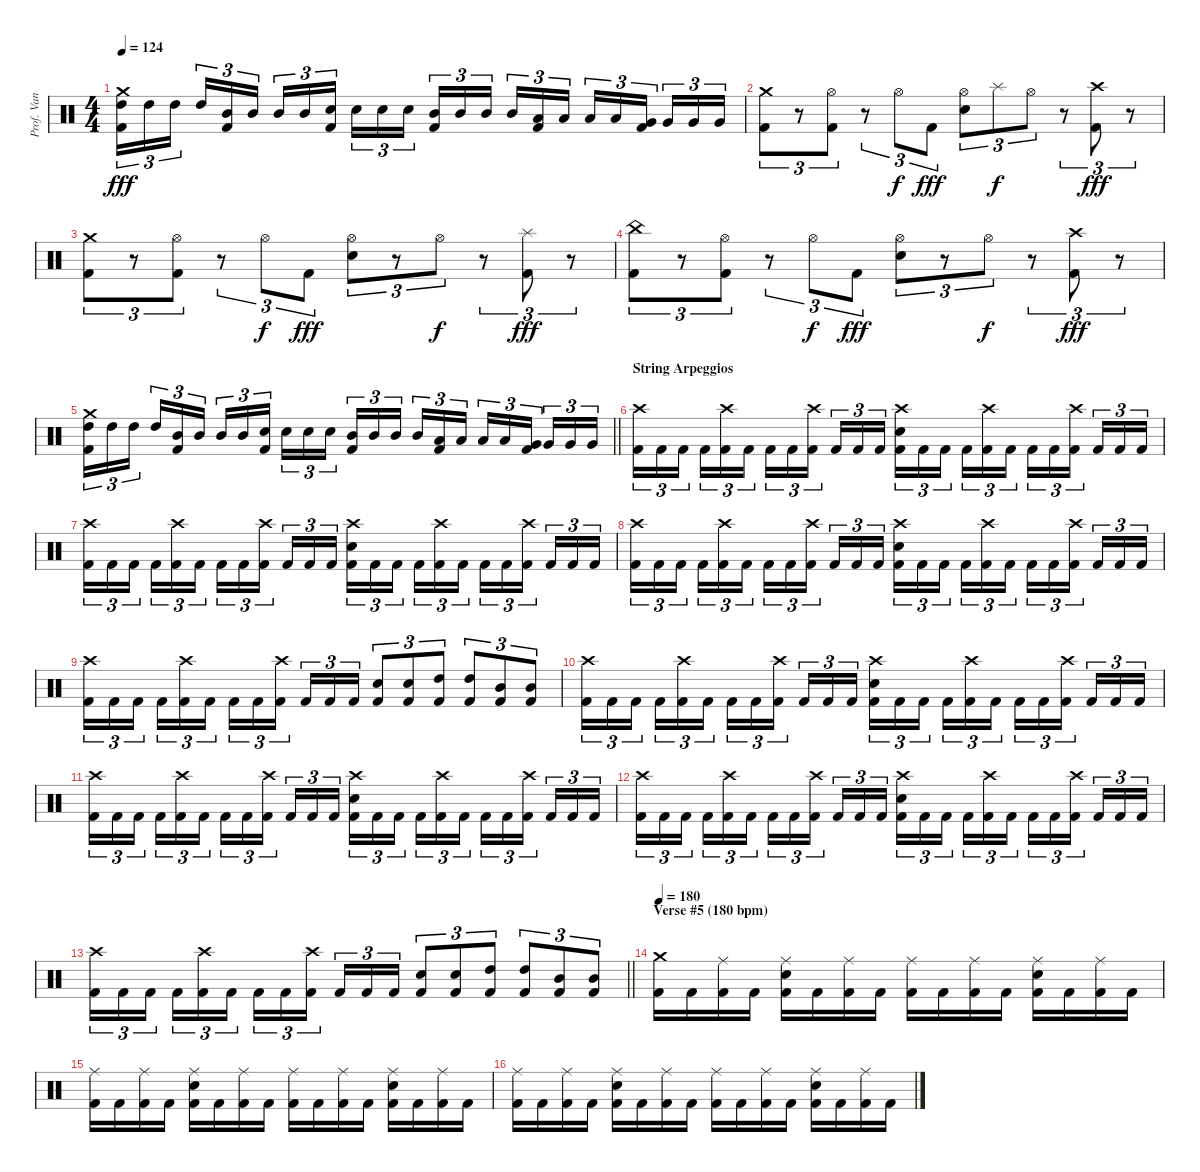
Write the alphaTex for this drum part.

\track ("Prof. Van Helsing (Drums)" "Prof. Van ") {instrument percussion}
\staff {score}
\articulation defaults
\ts (4 4)
\tempo 124
\clef neutral
\ks c
("Crash medium (hit)" "High Tom (hit)" "Kick (hit) 2").16{tu (3 2) dy fff} "High Tom (hit)".16{tu (3 2)} "High Tom (hit)".16{tu (3 2) beam splitsecondary} "High Tom (hit)".16{tu (3 2)} ("Mid Tom (hit)" "Kick (hit) 2").16{tu (3 2)} "Mid Tom (hit)".16{tu (3 2)} "Mid Tom (hit)".16{tu (3 2)} "Mid Tom (hit)".16{tu (3 2)} ("Snare (hit) 2" "Kick (hit) 2").16{tu (3 2) beam splitsecondary} "Snare (hit) 2".16{tu (3 2)} "Snare (hit) 2".16{tu (3 2)} "Snare (hit) 2".16{tu (3 2)} ("Mid Tom (hit)" "Kick (hit) 2").16{tu (3 2)} "Mid Tom (hit)".16{tu (3 2)} "Mid Tom (hit)".16{tu (3 2) beam splitsecondary} "Mid Tom (hit)".16{tu (3 2)} ("Low Tom (hit)" "Kick (hit) 2").16{tu (3 2)} "Low Tom (hit)".16{tu (3 2)} "Low Tom (hit)".16{tu (3 2)} "Low Tom (hit)".16{tu (3 2)} ("Very Low Tom (hit)" "Kick (hit) 2").16{tu (3 2) beam splitsecondary} "Very Low Tom (hit)".16{tu (3 2)} "Very Low Tom (hit)".16{tu (3 2)} "Very Low Tom (hit)".16{tu (3 2)} |
("Crash medium (hit)" "Kick (hit) 2").8{tu (3 2)} r.8{tu (3 2)} ("Hi-Hat (open)" "Kick (hit) 2").8{tu (3 2)} r.8{tu (3 2)} "Hi-Hat (open)".8{tu (3 2) dy f} "Kick (hit) 2".8{tu (3 2) dy fff} ("Hi-Hat (open)" "Snare (hit) 2").8{tu (3 2)} "Splash (hit)".8{tu (3 2) dy f} "Hi-Hat (open)".8{tu (3 2)} r.8{tu (3 2)} ("Crash high (hit)" "Kick (hit) 2").8{tu (3 2) dy fff} r.8{tu (3 2)} |
("Crash medium (hit)" "Kick (hit) 2").8{tu (3 2)} r.8{tu (3 2)} ("Hi-Hat (open)" "Kick (hit) 2").8{tu (3 2)} r.8{tu (3 2)} "Hi-Hat (open)".8{tu (3 2) dy f} "Kick (hit) 2".8{tu (3 2) dy fff} ("Hi-Hat (open)" "Snare (hit) 2").8{tu (3 2)} r.8{tu (3 2)} "Hi-Hat (open)".8{tu (3 2) dy f} r.8{tu (3 2)} ("Splash (hit)" "Kick (hit) 2").8{tu (3 2) dy fff} r.8{tu (3 2)} |
("China (hit)" "Kick (hit) 2").8{tu (3 2)} r.8{tu (3 2)} ("Hi-Hat (open)" "Kick (hit) 2").8{tu (3 2)} r.8{tu (3 2)} "Hi-Hat (open)".8{tu (3 2) dy f} "Kick (hit) 2".8{tu (3 2) dy fff} ("Hi-Hat (open)" "Snare (hit) 2").8{tu (3 2)} r.8{tu (3 2)} "Hi-Hat (open)".8{tu (3 2) dy f} r.8{tu (3 2)} ("Crash high (hit)" "Kick (hit) 2").8{tu (3 2) dy fff} r.8{tu (3 2)} |
\barLineRight lightlight
("Crash medium (hit)" "High Tom (hit)" "Kick (hit) 2").16{tu (3 2)} "High Tom (hit)".16{tu (3 2)} "High Tom (hit)".16{tu (3 2) beam splitsecondary} "High Tom (hit)".16{tu (3 2)} ("Mid Tom (hit)" "Kick (hit) 2").16{tu (3 2)} "Mid Tom (hit)".16{tu (3 2)} "Mid Tom (hit)".16{tu (3 2)} "Mid Tom (hit)".16{tu (3 2)} ("Snare (hit) 2" "Kick (hit) 2").16{tu (3 2) beam splitsecondary} "Snare (hit) 2".16{tu (3 2)} "Snare (hit) 2".16{tu (3 2)} "Snare (hit) 2".16{tu (3 2)} ("Mid Tom (hit)" "Kick (hit) 2").16{tu (3 2)} "Mid Tom (hit)".16{tu (3 2)} "Mid Tom (hit)".16{tu (3 2) beam splitsecondary} "Mid Tom (hit)".16{tu (3 2)} ("Low Tom (hit)" "Kick (hit) 2").16{tu (3 2)} "Low Tom (hit)".16{tu (3 2)} "Low Tom (hit)".16{tu (3 2)} "Low Tom (hit)".16{tu (3 2)} ("Very Low Tom (hit)" "Kick (hit) 2").16{tu (3 2) beam splitsecondary} "Very Low Tom (hit)".16{tu (3 2)} "Very Low Tom (hit)".16{tu (3 2)} "Very Low Tom (hit)".16{tu (3 2)} |
\section ("" "String Arpeggios")
("Crash high (hit)" "Kick (hit) 2").16{tu (3 2)} "Kick (hit) 2".16{tu (3 2)} "Kick (hit) 2".16{tu (3 2) beam splitsecondary} "Kick (hit) 2".16{tu (3 2)} ("Crash high (hit)" "Kick (hit) 2").16{tu (3 2)} "Kick (hit) 2".16{tu (3 2)} "Kick (hit) 2".16{tu (3 2)} "Kick (hit) 2".16{tu (3 2)} ("Crash high (hit)" "Kick (hit) 2").16{tu (3 2) beam splitsecondary} "Kick (hit) 2".16{tu (3 2)} "Kick (hit) 2".16{tu (3 2)} "Kick (hit) 2".16{tu (3 2)} ("Crash high (hit)" "Snare (hit) 2" "Kick (hit) 2").16{tu (3 2)} "Kick (hit) 2".16{tu (3 2)} "Kick (hit) 2".16{tu (3 2) beam splitsecondary} "Kick (hit) 2".16{tu (3 2)} ("Crash high (hit)" "Kick (hit) 2").16{tu (3 2)} "Kick (hit) 2".16{tu (3 2)} "Kick (hit) 2".16{tu (3 2)} "Kick (hit) 2".16{tu (3 2)} ("Crash high (hit)" "Kick (hit) 2").16{tu (3 2) beam splitsecondary} "Kick (hit) 2".16{tu (3 2)} "Kick (hit) 2".16{tu (3 2)} "Kick (hit) 2".16{tu (3 2)} |
("Crash high (hit)" "Kick (hit) 2").16{tu (3 2)} "Kick (hit) 2".16{tu (3 2)} "Kick (hit) 2".16{tu (3 2) beam splitsecondary} "Kick (hit) 2".16{tu (3 2)} ("Crash high (hit)" "Kick (hit) 2").16{tu (3 2)} "Kick (hit) 2".16{tu (3 2)} "Kick (hit) 2".16{tu (3 2)} "Kick (hit) 2".16{tu (3 2)} ("Crash high (hit)" "Kick (hit) 2").16{tu (3 2) beam splitsecondary} "Kick (hit) 2".16{tu (3 2)} "Kick (hit) 2".16{tu (3 2)} "Kick (hit) 2".16{tu (3 2)} ("Crash high (hit)" "Snare (hit) 2" "Kick (hit) 2").16{tu (3 2)} "Kick (hit) 2".16{tu (3 2)} "Kick (hit) 2".16{tu (3 2) beam splitsecondary} "Kick (hit) 2".16{tu (3 2)} ("Crash high (hit)" "Kick (hit) 2").16{tu (3 2)} "Kick (hit) 2".16{tu (3 2)} "Kick (hit) 2".16{tu (3 2)} "Kick (hit) 2".16{tu (3 2)} ("Crash high (hit)" "Kick (hit) 2").16{tu (3 2) beam splitsecondary} "Kick (hit) 2".16{tu (3 2)} "Kick (hit) 2".16{tu (3 2)} "Kick (hit) 2".16{tu (3 2)} |
("Crash high (hit)" "Kick (hit) 2").16{tu (3 2)} "Kick (hit) 2".16{tu (3 2)} "Kick (hit) 2".16{tu (3 2) beam splitsecondary} "Kick (hit) 2".16{tu (3 2)} ("Crash high (hit)" "Kick (hit) 2").16{tu (3 2)} "Kick (hit) 2".16{tu (3 2)} "Kick (hit) 2".16{tu (3 2)} "Kick (hit) 2".16{tu (3 2)} ("Crash high (hit)" "Kick (hit) 2").16{tu (3 2) beam splitsecondary} "Kick (hit) 2".16{tu (3 2)} "Kick (hit) 2".16{tu (3 2)} "Kick (hit) 2".16{tu (3 2)} ("Crash high (hit)" "Snare (hit) 2" "Kick (hit) 2").16{tu (3 2)} "Kick (hit) 2".16{tu (3 2)} "Kick (hit) 2".16{tu (3 2) beam splitsecondary} "Kick (hit) 2".16{tu (3 2)} ("Crash high (hit)" "Kick (hit) 2").16{tu (3 2)} "Kick (hit) 2".16{tu (3 2)} "Kick (hit) 2".16{tu (3 2)} "Kick (hit) 2".16{tu (3 2)} ("Crash high (hit)" "Kick (hit) 2").16{tu (3 2) beam splitsecondary} "Kick (hit) 2".16{tu (3 2)} "Kick (hit) 2".16{tu (3 2)} "Kick (hit) 2".16{tu (3 2)} |
("Crash high (hit)" "Kick (hit) 2").16{tu (3 2)} "Kick (hit) 2".16{tu (3 2)} "Kick (hit) 2".16{tu (3 2) beam splitsecondary} "Kick (hit) 2".16{tu (3 2)} ("Crash high (hit)" "Kick (hit) 2").16{tu (3 2)} "Kick (hit) 2".16{tu (3 2)} "Kick (hit) 2".16{tu (3 2)} "Kick (hit) 2".16{tu (3 2)} ("Crash high (hit)" "Kick (hit) 2").16{tu (3 2) beam splitsecondary} "Kick (hit) 2".16{tu (3 2)} "Kick (hit) 2".16{tu (3 2)} "Kick (hit) 2".16{tu (3 2)} ("Snare (hit) 2" "Kick (hit) 2").8{tu (3 2)} ("Snare (hit) 2" "Kick (hit) 2").8{tu (3 2)} ("High Tom (hit)" "Kick (hit) 2").8{tu (3 2)} ("High Tom (hit)" "Kick (hit) 2").8{tu (3 2)} ("Mid Tom (hit)" "Kick (hit) 2").8{tu (3 2)} ("Mid Tom (hit)" "Kick (hit) 2").8{tu (3 2)} |
("Crash high (hit)" "Kick (hit) 2").16{tu (3 2)} "Kick (hit) 2".16{tu (3 2)} "Kick (hit) 2".16{tu (3 2) beam splitsecondary} "Kick (hit) 2".16{tu (3 2)} ("Crash high (hit)" "Kick (hit) 2").16{tu (3 2)} "Kick (hit) 2".16{tu (3 2)} "Kick (hit) 2".16{tu (3 2)} "Kick (hit) 2".16{tu (3 2)} ("Crash high (hit)" "Kick (hit) 2").16{tu (3 2) beam splitsecondary} "Kick (hit) 2".16{tu (3 2)} "Kick (hit) 2".16{tu (3 2)} "Kick (hit) 2".16{tu (3 2)} ("Crash high (hit)" "Snare (hit) 2" "Kick (hit) 2").16{tu (3 2)} "Kick (hit) 2".16{tu (3 2)} "Kick (hit) 2".16{tu (3 2) beam splitsecondary} "Kick (hit) 2".16{tu (3 2)} ("Crash high (hit)" "Kick (hit) 2").16{tu (3 2)} "Kick (hit) 2".16{tu (3 2)} "Kick (hit) 2".16{tu (3 2)} "Kick (hit) 2".16{tu (3 2)} ("Crash high (hit)" "Kick (hit) 2").16{tu (3 2) beam splitsecondary} "Kick (hit) 2".16{tu (3 2)} "Kick (hit) 2".16{tu (3 2)} "Kick (hit) 2".16{tu (3 2)} |
("Crash high (hit)" "Kick (hit) 2").16{tu (3 2)} "Kick (hit) 2".16{tu (3 2)} "Kick (hit) 2".16{tu (3 2) beam splitsecondary} "Kick (hit) 2".16{tu (3 2)} ("Crash high (hit)" "Kick (hit) 2").16{tu (3 2)} "Kick (hit) 2".16{tu (3 2)} "Kick (hit) 2".16{tu (3 2)} "Kick (hit) 2".16{tu (3 2)} ("Crash high (hit)" "Kick (hit) 2").16{tu (3 2) beam splitsecondary} "Kick (hit) 2".16{tu (3 2)} "Kick (hit) 2".16{tu (3 2)} "Kick (hit) 2".16{tu (3 2)} ("Crash high (hit)" "Snare (hit) 2" "Kick (hit) 2").16{tu (3 2)} "Kick (hit) 2".16{tu (3 2)} "Kick (hit) 2".16{tu (3 2) beam splitsecondary} "Kick (hit) 2".16{tu (3 2)} ("Crash high (hit)" "Kick (hit) 2").16{tu (3 2)} "Kick (hit) 2".16{tu (3 2)} "Kick (hit) 2".16{tu (3 2)} "Kick (hit) 2".16{tu (3 2)} ("Crash high (hit)" "Kick (hit) 2").16{tu (3 2) beam splitsecondary} "Kick (hit) 2".16{tu (3 2)} "Kick (hit) 2".16{tu (3 2)} "Kick (hit) 2".16{tu (3 2)} |
("Crash high (hit)" "Kick (hit) 2").16{tu (3 2)} "Kick (hit) 2".16{tu (3 2)} "Kick (hit) 2".16{tu (3 2) beam splitsecondary} "Kick (hit) 2".16{tu (3 2)} ("Crash high (hit)" "Kick (hit) 2").16{tu (3 2)} "Kick (hit) 2".16{tu (3 2)} "Kick (hit) 2".16{tu (3 2)} "Kick (hit) 2".16{tu (3 2)} ("Crash high (hit)" "Kick (hit) 2").16{tu (3 2) beam splitsecondary} "Kick (hit) 2".16{tu (3 2)} "Kick (hit) 2".16{tu (3 2)} "Kick (hit) 2".16{tu (3 2)} ("Crash high (hit)" "Snare (hit) 2" "Kick (hit) 2").16{tu (3 2)} "Kick (hit) 2".16{tu (3 2)} "Kick (hit) 2".16{tu (3 2) beam splitsecondary} "Kick (hit) 2".16{tu (3 2)} ("Crash high (hit)" "Kick (hit) 2").16{tu (3 2)} "Kick (hit) 2".16{tu (3 2)} "Kick (hit) 2".16{tu (3 2)} "Kick (hit) 2".16{tu (3 2)} ("Crash high (hit)" "Kick (hit) 2").16{tu (3 2) beam splitsecondary} "Kick (hit) 2".16{tu (3 2)} "Kick (hit) 2".16{tu (3 2)} "Kick (hit) 2".16{tu (3 2)} |
\barLineRight lightlight
("Crash high (hit)" "Kick (hit) 2").16{tu (3 2)} "Kick (hit) 2".16{tu (3 2)} "Kick (hit) 2".16{tu (3 2) beam splitsecondary} "Kick (hit) 2".16{tu (3 2)} ("Crash high (hit)" "Kick (hit) 2").16{tu (3 2)} "Kick (hit) 2".16{tu (3 2)} "Kick (hit) 2".16{tu (3 2)} "Kick (hit) 2".16{tu (3 2)} ("Crash high (hit)" "Kick (hit) 2").16{tu (3 2) beam splitsecondary} "Kick (hit) 2".16{tu (3 2)} "Kick (hit) 2".16{tu (3 2)} "Kick (hit) 2".16{tu (3 2)} ("Snare (hit) 2" "Kick (hit) 2").8{tu (3 2)} ("Snare (hit) 2" "Kick (hit) 2").8{tu (3 2)} ("High Tom (hit)" "Kick (hit) 2").8{tu (3 2)} ("High Tom (hit)" "Kick (hit) 2").8{tu (3 2)} ("Mid Tom (hit)" "Kick (hit) 2").8{tu (3 2)} ("Mid Tom (hit)" "Kick (hit) 2").8{tu (3 2)} |
\section ("" "Verse #5 (180 bpm)")
\tempo 180
("Crash medium (hit)" "Kick (hit) 2").16 "Kick (hit) 2".16 ("Ride (middle)" "Kick (hit) 2").16 "Kick (hit) 2".16 ("Ride (middle)" "Snare (hit) 2" "Kick (hit) 2").16 "Kick (hit) 2".16 ("Ride (middle)" "Kick (hit) 2").16 "Kick (hit) 2".16 ("Ride (middle)" "Kick (hit) 2").16 "Kick (hit) 2".16 ("Ride (middle)" "Kick (hit) 2").16 "Kick (hit) 2".16 ("Ride (middle)" "Snare (hit) 2" "Kick (hit) 2").16 "Kick (hit) 2".16 ("Ride (middle)" "Kick (hit) 2").16 "Kick (hit) 2".16 |
("Ride (middle)" "Kick (hit) 2").16 "Kick (hit) 2".16 ("Ride (middle)" "Kick (hit) 2").16 "Kick (hit) 2".16 ("Ride (middle)" "Snare (hit) 2" "Kick (hit) 2").16 "Kick (hit) 2".16 ("Ride (middle)" "Kick (hit) 2").16 "Kick (hit) 2".16 ("Ride (middle)" "Kick (hit) 2").16 "Kick (hit) 2".16 ("Ride (middle)" "Kick (hit) 2").16 "Kick (hit) 2".16 ("Ride (middle)" "Snare (hit) 2" "Kick (hit) 2").16 "Kick (hit) 2".16 ("Ride (middle)" "Kick (hit) 2").16 "Kick (hit) 2".16 |
("Ride (middle)" "Kick (hit) 2").16 "Kick (hit) 2".16 ("Ride (middle)" "Kick (hit) 2").16 "Kick (hit) 2".16 ("Ride (middle)" "Snare (hit) 2" "Kick (hit) 2").16 "Kick (hit) 2".16 ("Ride (middle)" "Kick (hit) 2").16 "Kick (hit) 2".16 ("Ride (middle)" "Kick (hit) 2").16 "Kick (hit) 2".16 ("Ride (middle)" "Kick (hit) 2").16 "Kick (hit) 2".16 ("Ride (middle)" "Snare (hit) 2" "Kick (hit) 2").16 "Kick (hit) 2".16 ("Ride (middle)" "Kick (hit) 2").16 "Kick (hit) 2".16
